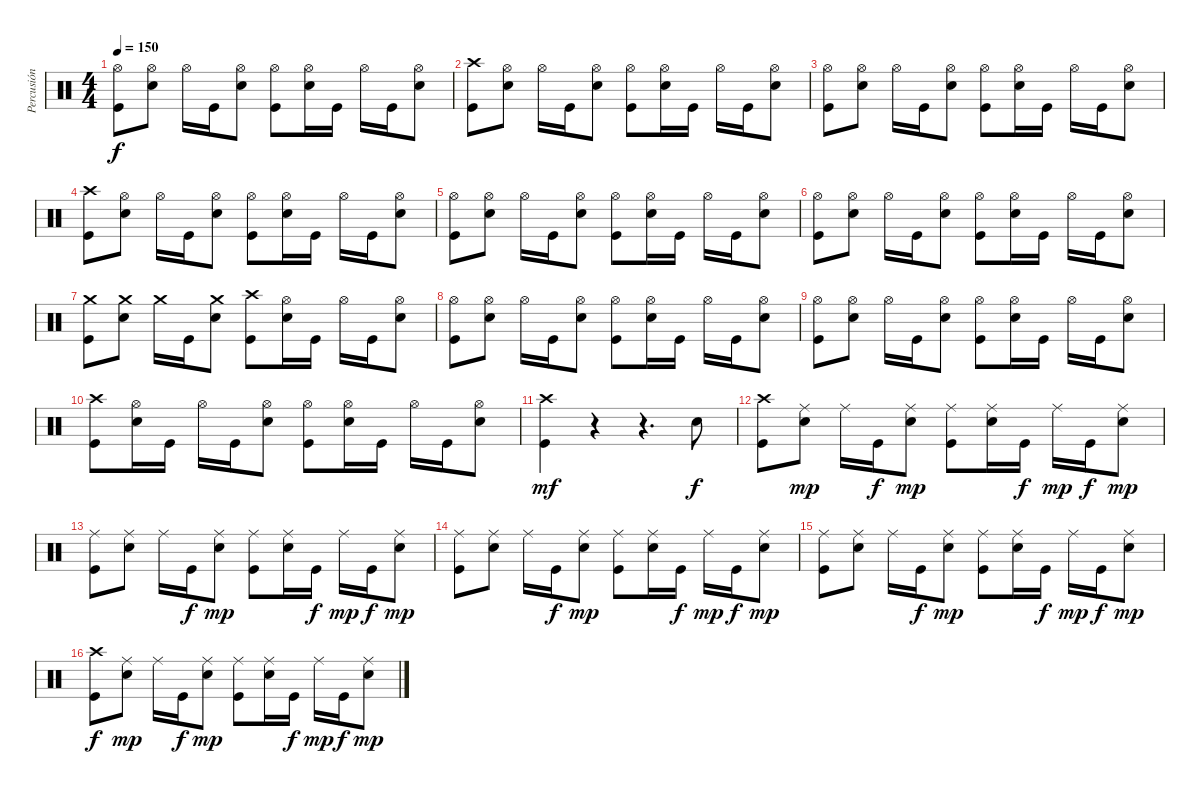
\track ("Percusión" "Percusión") {instrument percussion}
\staff {score}
\articulation defaults
\ts (4 4)
\tempo 150
\clef neutral
\ks c
("Hi-Hat (open)" "Kick (hit)").8{dy f} ("Hi-Hat (open)" "Snare (hit) 2").8 "Hi-Hat (open)".16 "Kick (hit)".16 ("Hi-Hat (open)" "Snare (hit) 2").8 ("Hi-Hat (open)" "Kick (hit)").8 ("Hi-Hat (open)" "Snare (hit) 2").16 "Kick (hit)".16 "Hi-Hat (open)".16 "Kick (hit)".16 ("Hi-Hat (open)" "Snare (hit) 2").8 |
("Crash high (hit)" "Kick (hit)").8 ("Hi-Hat (open)" "Snare (hit) 2").8 "Hi-Hat (open)".16 "Kick (hit)".16 ("Hi-Hat (open)" "Snare (hit) 2").8 ("Hi-Hat (open)" "Kick (hit)").8 ("Hi-Hat (open)" "Snare (hit) 2").16 "Kick (hit)".16 "Hi-Hat (open)".16 "Kick (hit)".16 ("Hi-Hat (open)" "Snare (hit) 2").8 |
("Hi-Hat (open)" "Kick (hit)").8 ("Hi-Hat (open)" "Snare (hit) 2").8 "Hi-Hat (open)".16 "Kick (hit)".16 ("Hi-Hat (open)" "Snare (hit) 2").8 ("Hi-Hat (open)" "Kick (hit)").8 ("Hi-Hat (open)" "Snare (hit) 2").16 "Kick (hit)".16 "Hi-Hat (open)".16 "Kick (hit)".16 ("Hi-Hat (open)" "Snare (hit) 2").8 |
("Crash high (hit)" "Kick (hit)").8 ("Hi-Hat (open)" "Snare (hit) 2").8 "Hi-Hat (open)".16 "Kick (hit)".16 ("Hi-Hat (open)" "Snare (hit) 2").8 ("Hi-Hat (open)" "Kick (hit)").8 ("Hi-Hat (open)" "Snare (hit) 2").16 "Kick (hit)".16 "Hi-Hat (open)".16 "Kick (hit)".16 ("Hi-Hat (open)" "Snare (hit) 2").8 |
("Hi-Hat (open)" "Kick (hit)").8 ("Hi-Hat (open)" "Snare (hit) 2").8 "Hi-Hat (open)".16 "Kick (hit)".16 ("Hi-Hat (open)" "Snare (hit) 2").8 ("Hi-Hat (open)" "Kick (hit)").8 ("Hi-Hat (open)" "Snare (hit) 2").16 "Kick (hit)".16 "Hi-Hat (open)".16 "Kick (hit)".16 ("Hi-Hat (open)" "Snare (hit) 2").8 |
("Hi-Hat (open)" "Kick (hit)").8 ("Hi-Hat (open)" "Snare (hit) 2").8 "Hi-Hat (open)".16 "Kick (hit)".16 ("Hi-Hat (open)" "Snare (hit) 2").8 ("Hi-Hat (open)" "Kick (hit)").8 ("Hi-Hat (open)" "Snare (hit) 2").16 "Kick (hit)".16 "Hi-Hat (open)".16 "Kick (hit)".16 ("Hi-Hat (open)" "Snare (hit) 2").8 |
("Crash medium (hit)" "Kick (hit)").8 ("Crash medium (hit)" "Snare (hit) 2").8 "Crash medium (hit)".16 "Kick (hit)".16 ("Crash medium (hit)" "Snare (hit) 2").8 ("Crash high (hit)" "Kick (hit)").8 ("Hi-Hat (open)" "Snare (hit) 2").16 "Kick (hit)".16 "Hi-Hat (open)".16 "Kick (hit)".16 ("Hi-Hat (open)" "Snare (hit) 2").8 |
("Hi-Hat (open)" "Kick (hit)").8 ("Hi-Hat (open)" "Snare (hit) 2").8 "Hi-Hat (open)".16 "Kick (hit)".16 ("Hi-Hat (open)" "Snare (hit) 2").8 ("Hi-Hat (open)" "Kick (hit)").8 ("Hi-Hat (open)" "Snare (hit) 2").16 "Kick (hit)".16 "Hi-Hat (open)".16 "Kick (hit)".16 ("Hi-Hat (open)" "Snare (hit) 2").8 |
("Hi-Hat (open)" "Kick (hit)").8 ("Hi-Hat (open)" "Snare (hit) 2").8 "Hi-Hat (open)".16 "Kick (hit)".16 ("Hi-Hat (open)" "Snare (hit) 2").8 ("Hi-Hat (open)" "Kick (hit)").8 ("Hi-Hat (open)" "Snare (hit) 2").16 "Kick (hit)".16 "Hi-Hat (open)".16 "Kick (hit)".16 ("Hi-Hat (open)" "Snare (hit) 2").8 |
("Crash high (hit)" "Kick (hit)").8 ("Hi-Hat (open)" "Snare (hit) 2").16 "Kick (hit)".16 "Hi-Hat (open)".16 "Kick (hit)".16 ("Hi-Hat (open)" "Snare (hit) 2").8 ("Hi-Hat (open)" "Kick (hit)").8 ("Hi-Hat (open)" "Snare (hit) 2").16 "Kick (hit)".16 "Hi-Hat (open)".16 "Kick (hit)".16 ("Hi-Hat (open)" "Snare (hit) 2").8 |
("Crash high (hit)" "Kick (hit)").4{dy mf} r.4 r.4{d} "Snare (hit) 2".8{dy f} |
("Crash high (hit)" "Kick (hit)").8 ("Ride (middle)" "Snare (hit) 2").8{dy mp} "Ride (middle)".16 "Kick (hit)".16{dy f} ("Ride (middle)" "Snare (hit) 2").8{dy mp} ("Ride (middle)" "Kick (hit)").8 ("Ride (middle)" "Snare (hit) 2").16 "Kick (hit)".16{dy f} "Ride (middle)".16{dy mp} "Kick (hit)".16{dy f} ("Ride (middle)" "Snare (hit) 2").8{dy mp} |
("Ride (middle)" "Kick (hit)").8 ("Ride (middle)" "Snare (hit) 2").8 "Ride (middle)".16 "Kick (hit)".16{dy f} ("Ride (middle)" "Snare (hit) 2").8{dy mp} ("Ride (middle)" "Kick (hit)").8 ("Ride (middle)" "Snare (hit) 2").16 "Kick (hit)".16{dy f} "Ride (middle)".16{dy mp} "Kick (hit)".16{dy f} ("Ride (middle)" "Snare (hit) 2").8{dy mp} |
("Ride (middle)" "Kick (hit)").8 ("Ride (middle)" "Snare (hit) 2").8 "Ride (middle)".16 "Kick (hit)".16{dy f} ("Ride (middle)" "Snare (hit) 2").8{dy mp} ("Ride (middle)" "Kick (hit)").8 ("Ride (middle)" "Snare (hit) 2").16 "Kick (hit)".16{dy f} "Ride (middle)".16{dy mp} "Kick (hit)".16{dy f} ("Ride (middle)" "Snare (hit) 2").8{dy mp} |
("Ride (middle)" "Kick (hit)").8 ("Ride (middle)" "Snare (hit) 2").8 "Ride (middle)".16 "Kick (hit)".16{dy f} ("Ride (middle)" "Snare (hit) 2").8{dy mp} ("Ride (middle)" "Kick (hit)").8 ("Ride (middle)" "Snare (hit) 2").16 "Kick (hit)".16{dy f} "Ride (middle)".16{dy mp} "Kick (hit)".16{dy f} ("Ride (middle)" "Snare (hit) 2").8{dy mp} |
("Crash high (hit)" "Kick (hit)").8{dy f} ("Ride (middle)" "Snare (hit) 2").8{dy mp} "Ride (middle)".16 "Kick (hit)".16{dy f} ("Ride (middle)" "Snare (hit) 2").8{dy mp} ("Ride (middle)" "Kick (hit)").8 ("Ride (middle)" "Snare (hit) 2").16 "Kick (hit)".16{dy f} "Ride (middle)".16{dy mp} "Kick (hit)".16{dy f} ("Ride (middle)" "Snare (hit) 2").8{dy mp}
